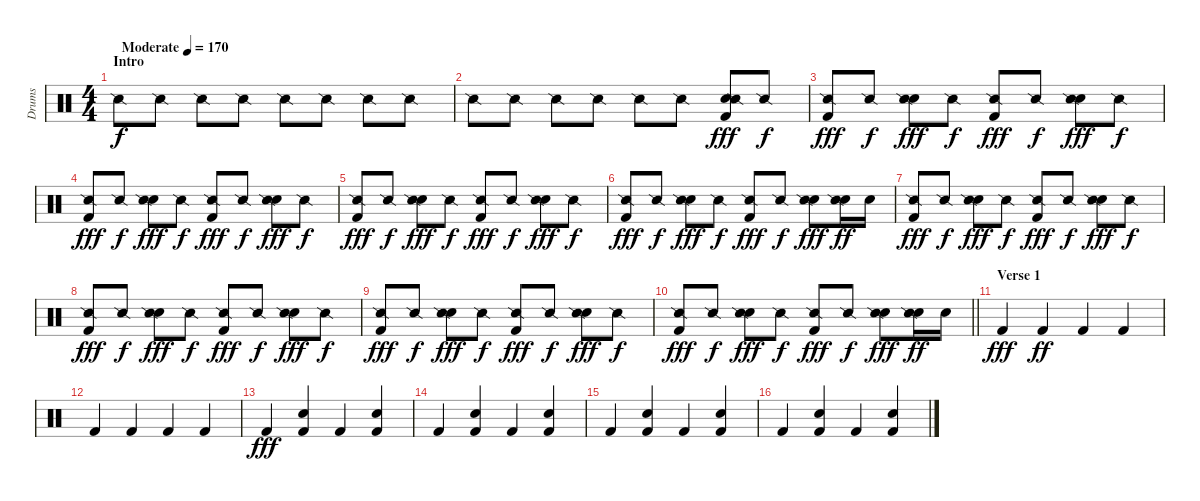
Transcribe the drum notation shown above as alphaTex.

\track ("Drums" "Drums") {instrument percussion}
\staff {score}
\articulation defaults
\ts (4 4)
\section ("" "Intro")
\tempo (170 "Moderate")
\clef neutral
\ks c "Snare (side stick) 2".8{dy f} "Snare (side stick) 2".8 "Snare (side stick) 2".8 "Snare (side stick) 2".8 "Snare (side stick) 2".8 "Snare (side stick) 2".8 "Snare (side stick) 2".8 "Snare (side stick) 2".8
|
"Snare (side stick) 2".8 "Snare (side stick) 2".8 "Snare (side stick) 2".8 "Snare (side stick) 2".8 "Snare (side stick) 2".8 "Snare (side stick) 2".8 ("Snare (hit) 2" "Kick (hit) 2" "Snare (side stick) 2").8{dy fff} "Snare (side stick) 2".8{dy f} |
("Kick (hit) 2" "Snare (side stick) 2").8{dy fff} "Snare (side stick) 2".8{dy f} ("Snare (hit) 2" "Snare (side stick) 2").8{dy fff} "Snare (side stick) 2".8{dy f} ("Kick (hit) 2" "Snare (side stick) 2").8{dy fff} "Snare (side stick) 2".8{dy f} ("Snare (hit) 2" "Snare (side stick) 2").8{dy fff} "Snare (side stick) 2".8{dy f} |
("Kick (hit) 2" "Snare (side stick) 2").8{dy fff} "Snare (side stick) 2".8{dy f} ("Snare (hit) 2" "Snare (side stick) 2").8{dy fff} "Snare (side stick) 2".8{dy f} ("Kick (hit) 2" "Snare (side stick) 2").8{dy fff} "Snare (side stick) 2".8{dy f} ("Snare (hit) 2" "Snare (side stick) 2").8{dy fff} "Snare (side stick) 2".8{dy f} |
("Kick (hit) 2" "Snare (side stick) 2").8{dy fff} "Snare (side stick) 2".8{dy f} ("Snare (hit) 2" "Snare (side stick) 2").8{dy fff} "Snare (side stick) 2".8{dy f} ("Kick (hit) 2" "Snare (side stick) 2").8{dy fff} "Snare (side stick) 2".8{dy f} ("Snare (hit) 2" "Snare (side stick) 2").8{dy fff} "Snare (side stick) 2".8{dy f} |
("Kick (hit) 2" "Snare (side stick) 2").8{dy fff} "Snare (side stick) 2".8{dy f} ("Snare (hit) 2" "Snare (side stick) 2").8{dy fff} "Snare (side stick) 2".8{dy f} ("Kick (hit) 2" "Snare (side stick) 2").8{dy fff} "Snare (side stick) 2".8{dy f} ("Snare (hit) 2" "Snare (side stick) 2").8{dy fff} ("Snare (hit) 2" "Snare (side stick) 2").16{dy ff} "Snare (hit) 2".16 |
("Kick (hit) 2" "Snare (side stick) 2").8{dy fff} "Snare (side stick) 2".8{dy f} ("Snare (hit) 2" "Snare (side stick) 2").8{dy fff} "Snare (side stick) 2".8{dy f} ("Kick (hit) 2" "Snare (side stick) 2").8{dy fff} "Snare (side stick) 2".8{dy f} ("Snare (hit) 2" "Snare (side stick) 2").8{dy fff} "Snare (side stick) 2".8{dy f} |
("Kick (hit) 2" "Snare (side stick) 2").8{dy fff} "Snare (side stick) 2".8{dy f} ("Snare (hit) 2" "Snare (side stick) 2").8{dy fff} "Snare (side stick) 2".8{dy f} ("Kick (hit) 2" "Snare (side stick) 2").8{dy fff} "Snare (side stick) 2".8{dy f} ("Snare (hit) 2" "Snare (side stick) 2").8{dy fff} "Snare (side stick) 2".8{dy f} |
("Kick (hit) 2" "Snare (side stick) 2").8{dy fff} "Snare (side stick) 2".8{dy f} ("Snare (hit) 2" "Snare (side stick) 2").8{dy fff} "Snare (side stick) 2".8{dy f} ("Kick (hit) 2" "Snare (side stick) 2").8{dy fff} "Snare (side stick) 2".8{dy f} ("Snare (hit) 2" "Snare (side stick) 2").8{dy fff} "Snare (side stick) 2".8{dy f} |
\barLineRight lightlight
("Kick (hit) 2" "Snare (side stick) 2").8{dy fff} "Snare (side stick) 2".8{dy f} ("Snare (hit) 2" "Snare (side stick) 2").8{dy fff} "Snare (side stick) 2".8{dy f} ("Kick (hit) 2" "Snare (side stick) 2").8{dy fff} "Snare (side stick) 2".8{dy f} ("Snare (hit) 2" "Snare (side stick) 2").8{dy fff} ("Snare (hit) 2" "Snare (side stick) 2").16{dy ff} "Snare (hit) 2".16 |
\section ("" "Verse 1")
"Kick (hit) 2".4{dy fff} "Kick (hit) 2".4{dy ff} "Kick (hit) 2".4 "Kick (hit) 2".4 |
"Kick (hit) 2".4 "Kick (hit) 2".4 "Kick (hit) 2".4 "Kick (hit) 2".4 |
"Kick (hit) 2".4{dy fff} ("Snare (hit) 2" "Kick (hit) 2").4 "Kick (hit) 2".4 ("Snare (hit) 2" "Kick (hit) 2").4 |
"Kick (hit) 2".4 ("Snare (hit) 2" "Kick (hit) 2").4 "Kick (hit) 2".4 ("Snare (hit) 2" "Kick (hit) 2").4 |
"Kick (hit) 2".4 ("Snare (hit) 2" "Kick (hit) 2").4 "Kick (hit) 2".4 ("Snare (hit) 2" "Kick (hit) 2").4 |
"Kick (hit) 2".4 ("Snare (hit) 2" "Kick (hit) 2").4 "Kick (hit) 2".4 ("Snare (hit) 2" "Kick (hit) 2").4
